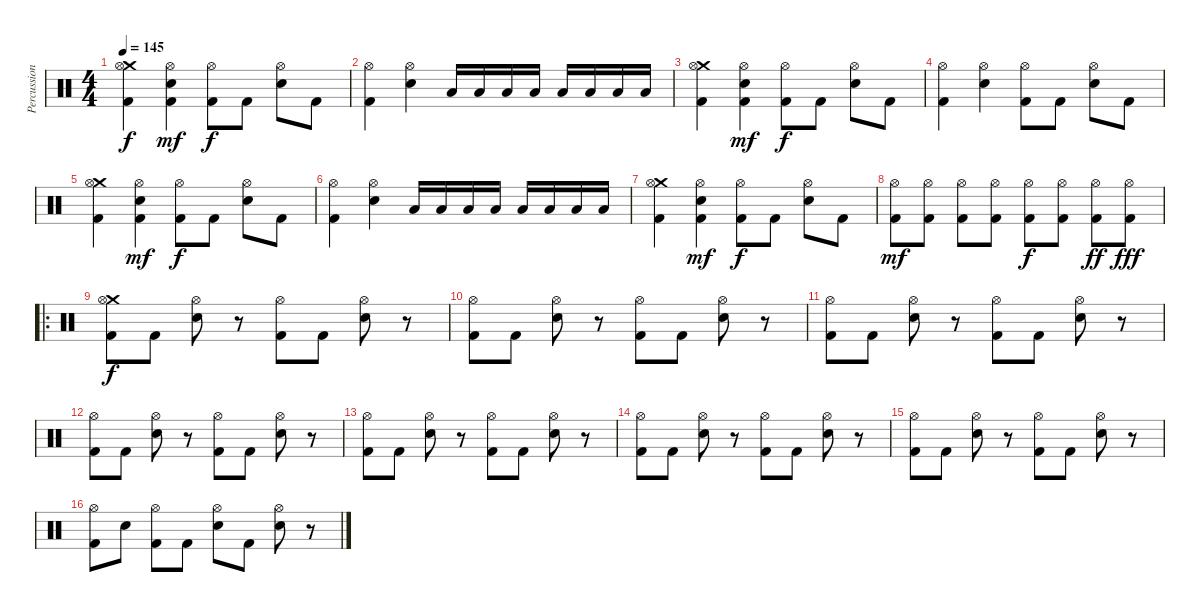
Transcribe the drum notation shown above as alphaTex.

\track ("Percussion" "Percussion") {instrument percussion}
\staff {score}
\articulation defaults
\ts (4 4)
\tempo 145
\clef neutral
\ks c
("Crash medium (hit)" "Hi-Hat (open)" "Kick (hit) 2").4{dy f} ("Hi-Hat (open)" "Electric Snare (hit)" "Kick (hit) 2").4{dy mf} ("Hi-Hat (open)" "Kick (hit) 2").8{dy f} "Kick (hit) 2".8 ("Hi-Hat (open)" "Electric Snare (hit)").8 "Kick (hit) 2".8 |
("Hi-Hat (open)" "Kick (hit) 2").4 ("Hi-Hat (open)" "Electric Snare (hit)").4 "Low Tom (hit)".16 "Low Tom (hit)".16 "Low Tom (hit)".16 "Low Tom (hit)".16 "Low Tom (hit)".16 "Low Tom (hit)".16 "Low Tom (hit)".16 "Low Tom (hit)".16 |
("Crash medium (hit)" "Hi-Hat (open)" "Kick (hit) 2").4 ("Hi-Hat (open)" "Electric Snare (hit)" "Kick (hit) 2").4{dy mf} ("Hi-Hat (open)" "Kick (hit) 2").8{dy f} "Kick (hit) 2".8 ("Hi-Hat (open)" "Electric Snare (hit)").8 "Kick (hit) 2".8 |
("Hi-Hat (open)" "Kick (hit) 2").4 ("Hi-Hat (open)" "Electric Snare (hit)").4 ("Hi-Hat (open)" "Kick (hit) 2").8 "Kick (hit) 2".8 ("Hi-Hat (open)" "Electric Snare (hit)").8 "Kick (hit) 2".8 |
("Crash medium (hit)" "Hi-Hat (open)" "Kick (hit) 2").4 ("Hi-Hat (open)" "Electric Snare (hit)" "Kick (hit) 2").4{dy mf} ("Hi-Hat (open)" "Kick (hit) 2").8{dy f} "Kick (hit) 2".8 ("Hi-Hat (open)" "Electric Snare (hit)").8 "Kick (hit) 2".8 |
("Hi-Hat (open)" "Kick (hit) 2").4 ("Hi-Hat (open)" "Electric Snare (hit)").4 "Low Tom (hit)".16 "Low Tom (hit)".16 "Low Tom (hit)".16 "Low Tom (hit)".16 "Low Tom (hit)".16 "Low Tom (hit)".16 "Low Tom (hit)".16 "Low Tom (hit)".16 |
("Crash medium (hit)" "Hi-Hat (open)" "Kick (hit) 2").4 ("Hi-Hat (open)" "Electric Snare (hit)" "Kick (hit) 2").4{dy mf} ("Hi-Hat (open)" "Kick (hit) 2").8{dy f} "Kick (hit) 2".8 ("Hi-Hat (open)" "Electric Snare (hit)").8 "Kick (hit) 2".8 |
("Hi-Hat (open)" "Kick (hit) 2").8{dy mf} ("Hi-Hat (open)" "Kick (hit) 2").8 ("Hi-Hat (open)" "Kick (hit) 2").8 ("Hi-Hat (open)" "Kick (hit) 2").8 ("Hi-Hat (open)" "Kick (hit) 2").8{dy f} ("Hi-Hat (open)" "Kick (hit) 2").8 ("Hi-Hat (open)" "Kick (hit) 2").8{dy ff} ("Hi-Hat (open)" "Kick (hit) 2").8{dy fff} |
\ro
("Crash medium (hit)" "Hi-Hat (open)" "Kick (hit) 2").8{dy f} "Kick (hit) 2".8 ("Hi-Hat (open)" "Electric Snare (hit)").8 r.8 ("Hi-Hat (open)" "Kick (hit) 2").8 "Kick (hit) 2".8 ("Hi-Hat (open)" "Electric Snare (hit)").8 r.8 |
("Hi-Hat (open)" "Kick (hit) 2").8 "Kick (hit) 2".8 ("Hi-Hat (open)" "Electric Snare (hit)").8 r.8 ("Hi-Hat (open)" "Kick (hit) 2").8 "Kick (hit) 2".8 ("Hi-Hat (open)" "Electric Snare (hit)").8 r.8 |
("Hi-Hat (open)" "Kick (hit) 2").8 "Kick (hit) 2".8 ("Hi-Hat (open)" "Electric Snare (hit)").8 r.8 ("Hi-Hat (open)" "Kick (hit) 2").8 "Kick (hit) 2".8 ("Hi-Hat (open)" "Electric Snare (hit)").8 r.8 |
("Hi-Hat (open)" "Kick (hit) 2").8 "Kick (hit) 2".8 ("Hi-Hat (open)" "Electric Snare (hit)").8 r.8 ("Hi-Hat (open)" "Kick (hit) 2").8 "Kick (hit) 2".8 ("Hi-Hat (open)" "Electric Snare (hit)").8 r.8 |
("Hi-Hat (open)" "Kick (hit) 2").8 "Kick (hit) 2".8 ("Hi-Hat (open)" "Electric Snare (hit)").8 r.8 ("Hi-Hat (open)" "Kick (hit) 2").8 "Kick (hit) 2".8 ("Hi-Hat (open)" "Electric Snare (hit)").8 r.8 |
("Hi-Hat (open)" "Kick (hit) 2").8 "Kick (hit) 2".8 ("Hi-Hat (open)" "Electric Snare (hit)").8 r.8 ("Hi-Hat (open)" "Kick (hit) 2").8 "Kick (hit) 2".8 ("Hi-Hat (open)" "Electric Snare (hit)").8 r.8 |
("Hi-Hat (open)" "Kick (hit) 2").8 "Kick (hit) 2".8 ("Hi-Hat (open)" "Electric Snare (hit)").8 r.8 ("Hi-Hat (open)" "Kick (hit) 2").8 "Kick (hit) 2".8 ("Hi-Hat (open)" "Electric Snare (hit)").8 r.8 |
("Hi-Hat (open)" "Kick (hit) 2").8 "Electric Snare (hit)".8 ("Hi-Hat (open)" "Kick (hit) 2").8 "Kick (hit) 2".8 ("Hi-Hat (open)" "Electric Snare (hit)").8 "Kick (hit) 2".8 ("Hi-Hat (open)" "Electric Snare (hit)").8 r.8
